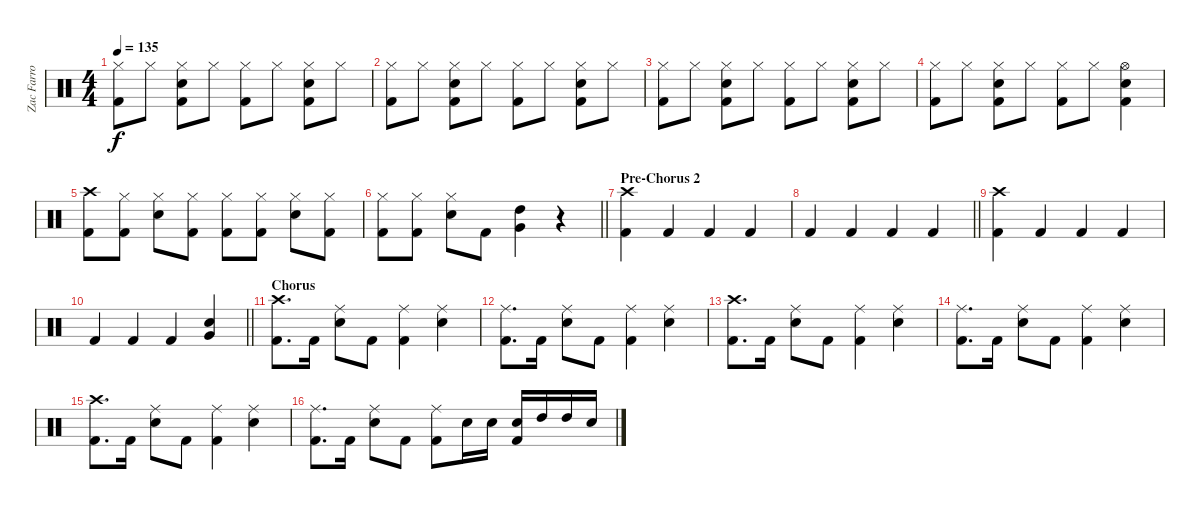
\track ("Zac Farro (Percussion)" "Zac Farro ") {instrument percussion}
\staff {score}
\articulation defaults
\ts (4 4)
\tempo 135
\clef neutral
\ks c
("Hi-Hat (closed)" "Kick (hit) 2").8{dy f} "Hi-Hat (closed)".8 ("Hi-Hat (closed)" "Snare (hit) 2" "Kick (hit) 2").8 "Hi-Hat (closed)".8 ("Hi-Hat (closed)" "Kick (hit) 2").8 "Hi-Hat (closed)".8 ("Hi-Hat (closed)" "Snare (hit) 2" "Kick (hit) 2").8 "Hi-Hat (closed)".8 |
("Hi-Hat (closed)" "Kick (hit) 2").8 "Hi-Hat (closed)".8 ("Hi-Hat (closed)" "Snare (hit) 2" "Kick (hit) 2").8 "Hi-Hat (closed)".8 ("Hi-Hat (closed)" "Kick (hit) 2").8 "Hi-Hat (closed)".8 ("Hi-Hat (closed)" "Snare (hit) 2" "Kick (hit) 2").8 "Hi-Hat (closed)".8 |
("Hi-Hat (closed)" "Kick (hit) 2").8 "Hi-Hat (closed)".8 ("Hi-Hat (closed)" "Snare (hit) 2" "Kick (hit) 2").8 "Hi-Hat (closed)".8 ("Hi-Hat (closed)" "Kick (hit) 2").8 "Hi-Hat (closed)".8 ("Hi-Hat (closed)" "Snare (hit) 2" "Kick (hit) 2").8 "Hi-Hat (closed)".8 |
("Hi-Hat (closed)" "Kick (hit) 2").8 "Hi-Hat (closed)".8 ("Hi-Hat (closed)" "Snare (hit) 2" "Kick (hit) 2").8 "Hi-Hat (closed)".8 ("Hi-Hat (closed)" "Kick (hit) 2").8 "Hi-Hat (closed)".8 ("Hi-Hat (open)" "Snare (hit) 2" "Kick (hit) 2").4 |
("Crash high (hit)" "Kick (hit) 2").8 ("Hi-Hat (closed)" "Kick (hit) 2").8 ("Hi-Hat (closed)" "Snare (hit) 2").8 ("Hi-Hat (closed)" "Kick (hit) 2").8 ("Hi-Hat (closed)" "Kick (hit) 2").8 ("Hi-Hat (closed)" "Kick (hit) 2").8 ("Hi-Hat (closed)" "Snare (hit) 2").8 ("Hi-Hat (closed)" "Kick (hit) 2").8 |
\barLineRight lightlight
("Hi-Hat (closed)" "Kick (hit) 2").8 ("Hi-Hat (closed)" "Kick (hit) 2").8 ("Hi-Hat (closed)" "Snare (hit) 2").8 "Kick (hit) 2".8 ("High Tom (hit)" "Very Low Tom (hit)").4 r.4 |
\section ("" "Pre-Chorus 2")
("Crash high (hit)" "Kick (hit) 2").4 "Kick (hit) 2".4 "Kick (hit) 2".4 "Kick (hit) 2".4 |
\barLineRight lightlight "Kick (hit) 2".4 "Kick (hit) 2".4 "Kick (hit) 2".4 "Kick (hit) 2".4
|
("Crash high (hit)" "Kick (hit) 2").4 "Kick (hit) 2".4 "Kick (hit) 2".4 "Kick (hit) 2".4 |
\barLineRight lightlight "Kick (hit) 2".4 "Kick (hit) 2".4 "Kick (hit) 2".4
("Snare (hit) 2" "Very Low Tom (hit)").4 |
\section ("" "Chorus")
("Crash high (hit)" "Kick (hit) 2").8{d} "Kick (hit) 2".16 ("Ride (middle)" "Snare (hit) 2").8 "Kick (hit) 2".8 ("Ride (middle)" "Kick (hit) 2").4 ("Ride (middle)" "Snare (hit) 2").4 |
("Ride (middle)" "Kick (hit) 2").8{d} "Kick (hit) 2".16 ("Ride (middle)" "Snare (hit) 2").8 "Kick (hit) 2".8 ("Ride (middle)" "Kick (hit) 2").4 ("Ride (middle)" "Snare (hit) 2").4 |
("Crash high (hit)" "Kick (hit) 2").8{d} "Kick (hit) 2".16 ("Ride (middle)" "Snare (hit) 2").8 "Kick (hit) 2".8 ("Ride (middle)" "Kick (hit) 2").4 ("Ride (middle)" "Snare (hit) 2").4 |
("Ride (middle)" "Kick (hit) 2").8{d} "Kick (hit) 2".16 ("Ride (middle)" "Snare (hit) 2").8 "Kick (hit) 2".8 ("Ride (middle)" "Kick (hit) 2").4 ("Ride (middle)" "Snare (hit) 2").4 |
("Crash high (hit)" "Kick (hit) 2").8{d} "Kick (hit) 2".16 ("Ride (middle)" "Snare (hit) 2").8 "Kick (hit) 2".8 ("Ride (middle)" "Kick (hit) 2").4 ("Ride (middle)" "Snare (hit) 2").4 |
("Ride (middle)" "Kick (hit) 2").8{d} "Kick (hit) 2".16 ("Ride (middle)" "Snare (hit) 2").8 "Kick (hit) 2".8 ("Ride (middle)" "Kick (hit) 2").8 "Snare (hit) 2".16 "Snare (hit) 2".16 ("Snare (hit) 2" "Kick (hit) 2").16 "High Tom (hit)".16 "High Tom (hit)".16 "Snare (hit) 2".16
